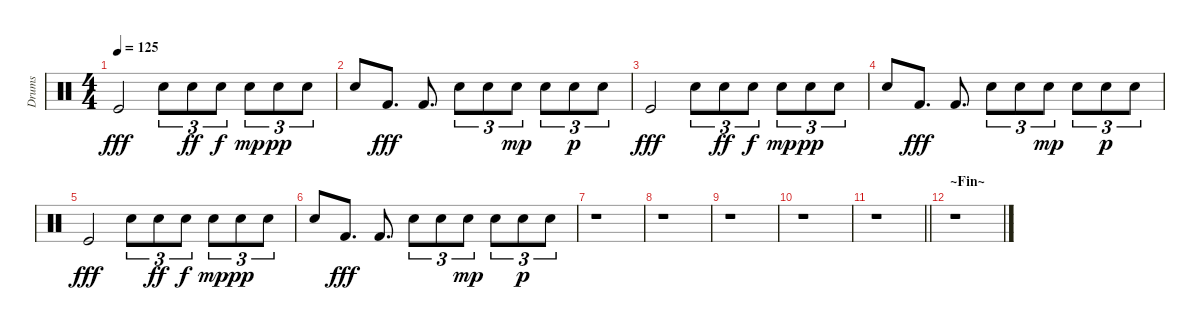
\track ("Drums" "Drums") {instrument percussion}
\staff {score}
\articulation defaults
\ts (4 4)
\tempo 125
\clef neutral
\ks c "Kick (hit)".2{dy fff} "Hand Clap (hit)".8{tu (3 2)} "Hand Clap (hit)".8{tu (3 2) dy ff} "Hand Clap (hit)".8{tu (3 2) dy f} "Hand Clap (hit)".8{tu (3 2) dy mp} "Hand Clap (hit)".8{tu (3 2) dy pp} "Hand Clap (hit)".8{tu (3 2)}
|
"Hand Clap (hit)".8 "Kick (hit) 2".8{d dy fff} "Kick (hit) 2".8{d} "Hand Clap (hit)".8{tu (3 2)} "Hand Clap (hit)".8{tu (3 2)} "Hand Clap (hit)".8{tu (3 2) dy mp} "Hand Clap (hit)".8{tu (3 2)} "Hand Clap (hit)".8{tu (3 2) dy p} "Hand Clap (hit)".8{tu (3 2)} |
"Kick (hit)".2{dy fff} "Hand Clap (hit)".8{tu (3 2)} "Hand Clap (hit)".8{tu (3 2) dy ff} "Hand Clap (hit)".8{tu (3 2) dy f} "Hand Clap (hit)".8{tu (3 2) dy mp} "Hand Clap (hit)".8{tu (3 2) dy pp} "Hand Clap (hit)".8{tu (3 2)} |
"Hand Clap (hit)".8 "Kick (hit) 2".8{d dy fff} "Kick (hit) 2".8{d} "Hand Clap (hit)".8{tu (3 2)} "Hand Clap (hit)".8{tu (3 2)} "Hand Clap (hit)".8{tu (3 2) dy mp} "Hand Clap (hit)".8{tu (3 2)} "Hand Clap (hit)".8{tu (3 2) dy p} "Hand Clap (hit)".8{tu (3 2)} |
"Kick (hit)".2{dy fff} "Hand Clap (hit)".8{tu (3 2)} "Hand Clap (hit)".8{tu (3 2) dy ff} "Hand Clap (hit)".8{tu (3 2) dy f} "Hand Clap (hit)".8{tu (3 2) dy mp} "Hand Clap (hit)".8{tu (3 2) dy pp} "Hand Clap (hit)".8{tu (3 2)} |
"Hand Clap (hit)".8 "Kick (hit) 2".8{d dy fff} "Kick (hit) 2".8{d} "Hand Clap (hit)".8{tu (3 2)} "Hand Clap (hit)".8{tu (3 2)} "Hand Clap (hit)".8{tu (3 2) dy mp} "Hand Clap (hit)".8{tu (3 2)} "Hand Clap (hit)".8{tu (3 2) dy p} "Hand Clap (hit)".8{tu (3 2)} |
r.1 |
r.1 |
r.1 |
r.1 |
\barLineRight lightlight
r.1 |
\section ("" "~Fin~")
r.1
